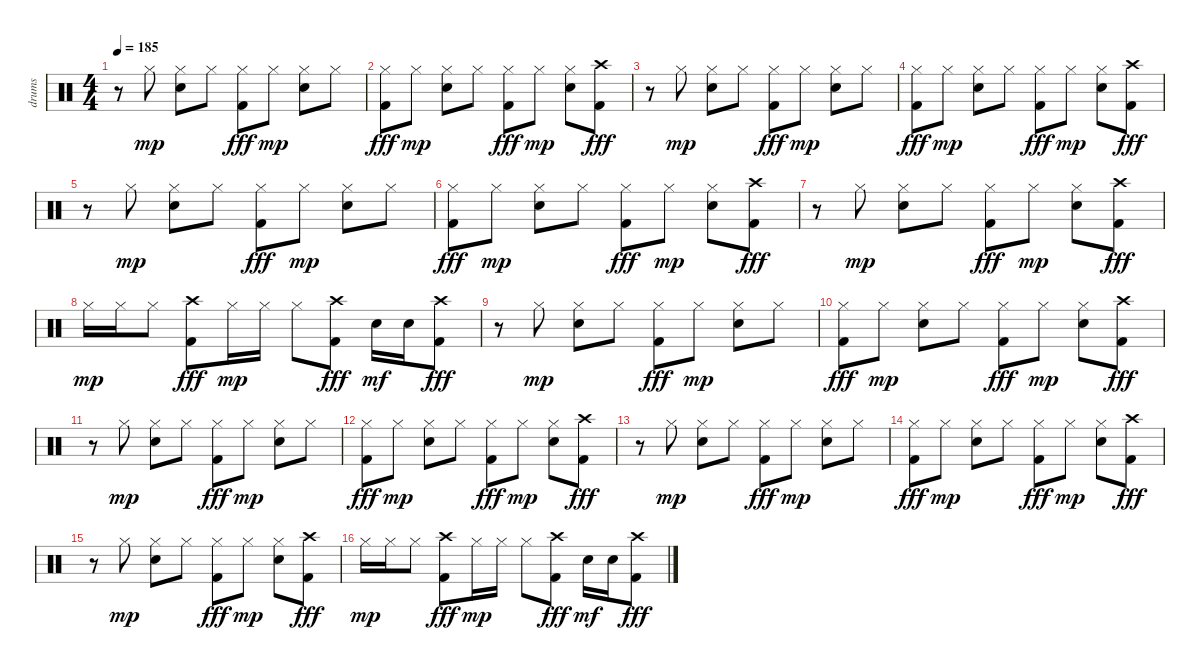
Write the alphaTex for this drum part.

\track ("drums" "drums") {instrument percussion}
\staff {score}
\articulation defaults
\ts (4 4)
\section ("" "")
\tempo 185
\clef neutral
\ks c
r.8{dy fff} "Hi-Hat (closed)".8{dy mp} ("Hi-Hat (closed)" "Snare (hit) 2").8 "Hi-Hat (closed)".8 ("Hi-Hat (closed)" "Kick (hit) 2").8{dy fff} "Hi-Hat (closed)".8{dy mp} ("Hi-Hat (closed)" "Snare (hit) 2").8 "Hi-Hat (closed)".8 |
("Hi-Hat (closed)" "Kick (hit) 2").8{dy fff} "Hi-Hat (closed)".8{dy mp} ("Hi-Hat (closed)" "Snare (hit) 2").8 "Hi-Hat (closed)".8 ("Hi-Hat (closed)" "Kick (hit) 2").8{dy fff} "Hi-Hat (closed)".8{dy mp} ("Hi-Hat (closed)" "Snare (hit) 2").8 ("Crash high (hit)" "Kick (hit) 2").8{dy fff} |
r.8 "Hi-Hat (closed)".8{dy mp} ("Hi-Hat (closed)" "Snare (hit) 2").8 "Hi-Hat (closed)".8 ("Hi-Hat (closed)" "Kick (hit) 2").8{dy fff} "Hi-Hat (closed)".8{dy mp} ("Hi-Hat (closed)" "Snare (hit) 2").8 "Hi-Hat (closed)".8 |
("Hi-Hat (closed)" "Kick (hit) 2").8{dy fff} "Hi-Hat (closed)".8{dy mp} ("Hi-Hat (closed)" "Snare (hit) 2").8 "Hi-Hat (closed)".8 ("Hi-Hat (closed)" "Kick (hit) 2").8{dy fff} "Hi-Hat (closed)".8{dy mp} ("Hi-Hat (closed)" "Snare (hit) 2").8 ("Crash high (hit)" "Kick (hit) 2").8{dy fff} |
r.8 "Hi-Hat (closed)".8{dy mp} ("Hi-Hat (closed)" "Snare (hit) 2").8 "Hi-Hat (closed)".8 ("Hi-Hat (closed)" "Kick (hit) 2").8{dy fff} "Hi-Hat (closed)".8{dy mp} ("Hi-Hat (closed)" "Snare (hit) 2").8 "Hi-Hat (closed)".8 |
("Hi-Hat (closed)" "Kick (hit) 2").8{dy fff} "Hi-Hat (closed)".8{dy mp} ("Hi-Hat (closed)" "Snare (hit) 2").8 "Hi-Hat (closed)".8 ("Hi-Hat (closed)" "Kick (hit) 2").8{dy fff} "Hi-Hat (closed)".8{dy mp} ("Hi-Hat (closed)" "Snare (hit) 2").8 ("Crash high (hit)" "Kick (hit) 2").8{dy fff} |
r.8 "Hi-Hat (closed)".8{dy mp} ("Hi-Hat (closed)" "Snare (hit) 2").8 "Hi-Hat (closed)".8 ("Hi-Hat (closed)" "Kick (hit) 2").8{dy fff} "Hi-Hat (closed)".8{dy mp} ("Hi-Hat (closed)" "Snare (hit) 2").8 ("Crash high (hit)" "Kick (hit) 2").8{dy fff} |
"Hi-Hat (closed)".16{dy mp} "Hi-Hat (closed)".16 "Hi-Hat (closed)".8 ("Crash high (hit)" "Kick (hit) 2").8{dy fff} "Hi-Hat (closed)".16{dy mp} "Hi-Hat (closed)".16 "Hi-Hat (closed)".8 ("Crash high (hit)" "Kick (hit) 2").8{dy fff} "Snare (hit) 2".16{dy mf} "Snare (hit) 2".16 ("Crash high (hit)" "Kick (hit) 2").8{dy fff} |
r.8 "Hi-Hat (closed)".8{dy mp} ("Hi-Hat (closed)" "Snare (hit) 2").8 "Hi-Hat (closed)".8 ("Hi-Hat (closed)" "Kick (hit) 2").8{dy fff} "Hi-Hat (closed)".8{dy mp} ("Hi-Hat (closed)" "Snare (hit) 2").8 "Hi-Hat (closed)".8 |
("Hi-Hat (closed)" "Kick (hit) 2").8{dy fff} "Hi-Hat (closed)".8{dy mp} ("Hi-Hat (closed)" "Snare (hit) 2").8 "Hi-Hat (closed)".8 ("Hi-Hat (closed)" "Kick (hit) 2").8{dy fff} "Hi-Hat (closed)".8{dy mp} ("Hi-Hat (closed)" "Snare (hit) 2").8 ("Crash high (hit)" "Kick (hit) 2").8{dy fff} |
r.8 "Hi-Hat (closed)".8{dy mp} ("Hi-Hat (closed)" "Snare (hit) 2").8 "Hi-Hat (closed)".8 ("Hi-Hat (closed)" "Kick (hit) 2").8{dy fff} "Hi-Hat (closed)".8{dy mp} ("Hi-Hat (closed)" "Snare (hit) 2").8 "Hi-Hat (closed)".8 |
("Hi-Hat (closed)" "Kick (hit) 2").8{dy fff} "Hi-Hat (closed)".8{dy mp} ("Hi-Hat (closed)" "Snare (hit) 2").8 "Hi-Hat (closed)".8 ("Hi-Hat (closed)" "Kick (hit) 2").8{dy fff} "Hi-Hat (closed)".8{dy mp} ("Hi-Hat (closed)" "Snare (hit) 2").8 ("Crash high (hit)" "Kick (hit) 2").8{dy fff} |
r.8 "Hi-Hat (closed)".8{dy mp} ("Hi-Hat (closed)" "Snare (hit) 2").8 "Hi-Hat (closed)".8 ("Hi-Hat (closed)" "Kick (hit) 2").8{dy fff} "Hi-Hat (closed)".8{dy mp} ("Hi-Hat (closed)" "Snare (hit) 2").8 "Hi-Hat (closed)".8 |
("Hi-Hat (closed)" "Kick (hit) 2").8{dy fff} "Hi-Hat (closed)".8{dy mp} ("Hi-Hat (closed)" "Snare (hit) 2").8 "Hi-Hat (closed)".8 ("Hi-Hat (closed)" "Kick (hit) 2").8{dy fff} "Hi-Hat (closed)".8{dy mp} ("Hi-Hat (closed)" "Snare (hit) 2").8 ("Crash high (hit)" "Kick (hit) 2").8{dy fff} |
r.8 "Hi-Hat (closed)".8{dy mp} ("Hi-Hat (closed)" "Snare (hit) 2").8 "Hi-Hat (closed)".8 ("Hi-Hat (closed)" "Kick (hit) 2").8{dy fff} "Hi-Hat (closed)".8{dy mp} ("Hi-Hat (closed)" "Snare (hit) 2").8 ("Crash high (hit)" "Kick (hit) 2").8{dy fff} |
"Hi-Hat (closed)".16{dy mp} "Hi-Hat (closed)".16 "Hi-Hat (closed)".8 ("Crash high (hit)" "Kick (hit) 2").8{dy fff} "Hi-Hat (closed)".16{dy mp} "Hi-Hat (closed)".16 "Hi-Hat (closed)".8 ("Crash high (hit)" "Kick (hit) 2").8{dy fff} "Snare (hit) 2".16{dy mf} "Snare (hit) 2".16 ("Crash high (hit)" "Kick (hit) 2").8{dy fff}
